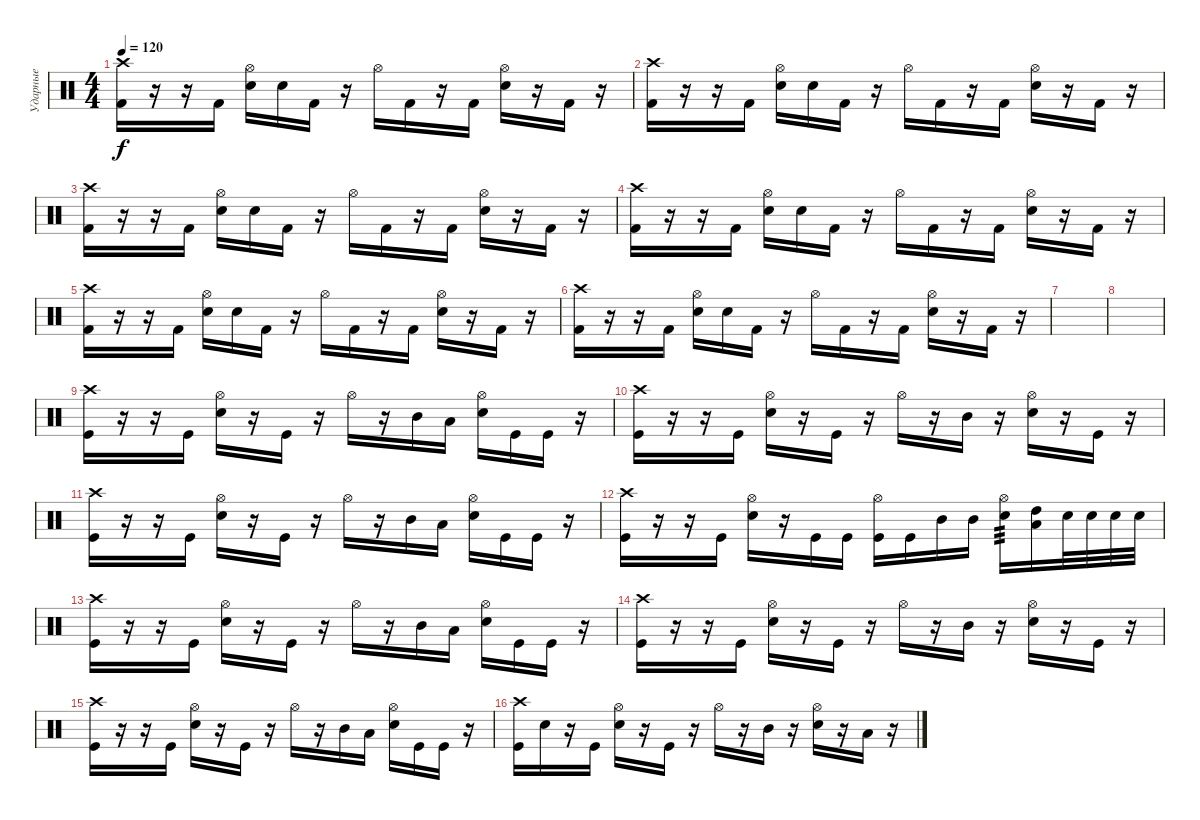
\track ("Ударные" "Ударные") {instrument percussion}
\staff {score}
\articulation defaults
\ts (4 4)
\tempo 120
\clef neutral
\ks c
("Crash high (hit)" "Kick (hit) 2").16{dy f} r.16 r.16 "Kick (hit) 2".16 ("Hi-Hat (open)" "Electric Snare (hit)").16 "Electric Snare (hit)".16 "Kick (hit) 2".16 r.16 "Hi-Hat (open)".16 "Kick (hit) 2".16 r.16 "Kick (hit) 2".16 ("Hi-Hat (open)" "Electric Snare (hit)").16 r.16 "Kick (hit) 2".16 r.16 |
("Crash high (hit)" "Kick (hit) 2").16 r.16 r.16 "Kick (hit) 2".16 ("Hi-Hat (open)" "Electric Snare (hit)").16 "Electric Snare (hit)".16 "Kick (hit) 2".16 r.16 "Hi-Hat (open)".16 "Kick (hit) 2".16 r.16 "Kick (hit) 2".16 ("Hi-Hat (open)" "Electric Snare (hit)").16 r.16 "Kick (hit) 2".16 r.16 |
("Crash high (hit)" "Kick (hit) 2").16 r.16 r.16 "Kick (hit) 2".16 ("Hi-Hat (open)" "Electric Snare (hit)").16 "Electric Snare (hit)".16 "Kick (hit) 2".16 r.16 "Hi-Hat (open)".16 "Kick (hit) 2".16 r.16 "Kick (hit) 2".16 ("Hi-Hat (open)" "Electric Snare (hit)").16 r.16 "Kick (hit) 2".16 r.16 |
("Crash high (hit)" "Kick (hit) 2").16 r.16 r.16 "Kick (hit) 2".16 ("Hi-Hat (open)" "Electric Snare (hit)").16 "Electric Snare (hit)".16 "Kick (hit) 2".16 r.16 "Hi-Hat (open)".16 "Kick (hit) 2".16 r.16 "Kick (hit) 2".16 ("Hi-Hat (open)" "Electric Snare (hit)").16 r.16 "Kick (hit) 2".16 r.16 |
("Crash high (hit)" "Kick (hit) 2").16 r.16 r.16 "Kick (hit) 2".16 ("Hi-Hat (open)" "Electric Snare (hit)").16 "Electric Snare (hit)".16 "Kick (hit) 2".16 r.16 "Hi-Hat (open)".16 "Kick (hit) 2".16 r.16 "Kick (hit) 2".16 ("Hi-Hat (open)" "Electric Snare (hit)").16 r.16 "Kick (hit) 2".16 r.16 |
("Crash high (hit)" "Kick (hit) 2").16 r.16 r.16 "Kick (hit) 2".16 ("Hi-Hat (open)" "Electric Snare (hit)").16 "Electric Snare (hit)".16 "Kick (hit) 2".16 r.16 "Hi-Hat (open)".16 "Kick (hit) 2".16 r.16 "Kick (hit) 2".16 ("Hi-Hat (open)" "Electric Snare (hit)").16 r.16 "Kick (hit) 2".16 r.16 |
|
|
("Crash high (hit)" "Kick (hit)").16 r.16 r.16 "Kick (hit)".16 ("Hi-Hat (open)" "Electric Snare (hit)").16 r.16 "Kick (hit)".16 r.16 "Hi-Hat (open)".16 r.16 "Mid Tom (hit)".16 "Low Tom (hit)".16 ("Hi-Hat (open)" "Electric Snare (hit)").16 "Kick (hit)".16 "Kick (hit)".16 r.16 |
("Crash high (hit)" "Kick (hit)").16 r.16 r.16 "Kick (hit)".16 ("Hi-Hat (open)" "Electric Snare (hit)").16 r.16 "Kick (hit)".16 r.16 "Hi-Hat (open)".16 r.16 "Mid Tom (hit)".16 r.16 ("Hi-Hat (open)" "Electric Snare (hit)").16 r.16 "Kick (hit)".16 r.16 |
("Crash high (hit)" "Kick (hit)").16 r.16 r.16 "Kick (hit)".16 ("Hi-Hat (open)" "Electric Snare (hit)").16 r.16 "Kick (hit)".16 r.16 "Hi-Hat (open)".16 r.16 "Mid Tom (hit)".16 "Low Tom (hit)".16 ("Hi-Hat (open)" "Electric Snare (hit)").16 "Kick (hit)".16 "Kick (hit)".16 r.16 |
("Crash high (hit)" "Kick (hit)").16 r.16 r.16 "Kick (hit)".16 ("Hi-Hat (open)" "Electric Snare (hit)").16 r.16 "Kick (hit)".16 "Kick (hit)".16 ("Hi-Hat (open)" "Kick (hit)").16 "Kick (hit)".16 "Mid Tom (hit)".16 "Mid Tom (hit)".16 ("Hi-Hat (open)" "Electric Snare (hit)").16{tp 3} ("High Tom (hit)" "Low Tom (hit)").16 "Electric Snare (hit)".32 "Electric Snare (hit)".32 "Electric Snare (hit)".32 "Electric Snare (hit)".32 |
("Crash high (hit)" "Kick (hit)").16 r.16 r.16 "Kick (hit)".16 ("Hi-Hat (open)" "Electric Snare (hit)").16 r.16 "Kick (hit)".16 r.16 "Hi-Hat (open)".16 r.16 "Mid Tom (hit)".16 "Low Tom (hit)".16 ("Hi-Hat (open)" "Electric Snare (hit)").16 "Kick (hit)".16 "Kick (hit)".16 r.16 |
("Crash high (hit)" "Kick (hit)").16 r.16 r.16 "Kick (hit)".16 ("Hi-Hat (open)" "Electric Snare (hit)").16 r.16 "Kick (hit)".16 r.16 "Hi-Hat (open)".16 r.16 "Mid Tom (hit)".16 r.16 ("Hi-Hat (open)" "Electric Snare (hit)").16 r.16 "Kick (hit)".16 r.16 |
("Crash high (hit)" "Kick (hit)").16 r.16 r.16 "Kick (hit)".16 ("Hi-Hat (open)" "Electric Snare (hit)").16 r.16 "Kick (hit)".16 r.16 "Hi-Hat (open)".16 r.16 "Mid Tom (hit)".16 "Low Tom (hit)".16 ("Hi-Hat (open)" "Electric Snare (hit)").16 "Kick (hit)".16 "Kick (hit)".16 r.16 |
("Crash high (hit)" "Kick (hit)").16 "Electric Snare (hit)".16 r.16 "Kick (hit)".16 ("Hi-Hat (open)" "Electric Snare (hit)").16 r.16 "Kick (hit)".16 r.16 "Hi-Hat (open)".16 r.16 "Mid Tom (hit)".16 r.16 ("Hi-Hat (open)" "Electric Snare (hit)").16 r.16 "Low Tom (hit)".16 r.16
